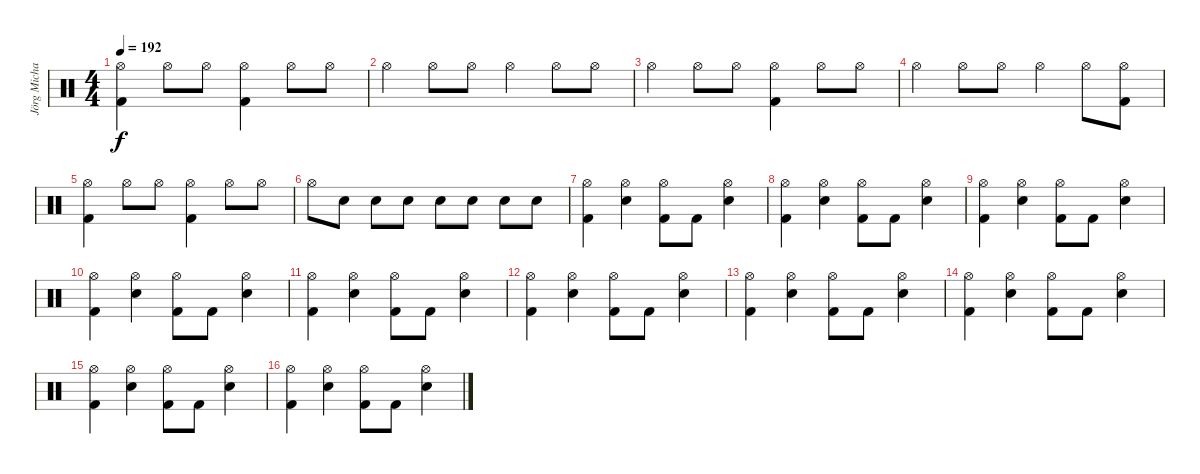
\track ("Jörg Michael" "Jörg Micha") {instrument percussion}
\staff {score}
\articulation defaults
\ts (4 4)
\tempo 192
\clef neutral
\ks c
("Kick (hit) 2" "Hi-Hat (open)").4{dy f} "Hi-Hat (open)".8 "Hi-Hat (open)".8 ("Kick (hit) 2" "Hi-Hat (open)").4 "Hi-Hat (open)".8 "Hi-Hat (open)".8 |
"Hi-Hat (open)".4 "Hi-Hat (open)".8 "Hi-Hat (open)".8 "Hi-Hat (open)".4 "Hi-Hat (open)".8 "Hi-Hat (open)".8 |
"Hi-Hat (open)".4 "Hi-Hat (open)".8 "Hi-Hat (open)".8 ("Kick (hit) 2" "Hi-Hat (open)").4 "Hi-Hat (open)".8 "Hi-Hat (open)".8 |
"Hi-Hat (open)".4 "Hi-Hat (open)".8 "Hi-Hat (open)".8 "Hi-Hat (open)".4 "Hi-Hat (open)".8 ("Kick (hit) 2" "Hi-Hat (open)").8 |
("Kick (hit) 2" "Hi-Hat (open)").4 "Hi-Hat (open)".8 "Hi-Hat (open)".8 ("Kick (hit) 2" "Hi-Hat (open)").4 "Hi-Hat (open)".8 "Hi-Hat (open)".8 |
"Hi-Hat (open)".8 "Snare (hit) 2".8 "Snare (hit) 2".8 "Snare (hit) 2".8 "Snare (hit) 2".8 "Snare (hit) 2".8 "Snare (hit) 2".8 "Snare (hit) 2".8 |
("Hi-Hat (open)" "Kick (hit) 2").4 ("Hi-Hat (open)" "Electric Snare (hit)").4 ("Hi-Hat (open)" "Kick (hit) 2").8 "Kick (hit) 2".8 ("Hi-Hat (open)" "Electric Snare (hit)").4 |
("Hi-Hat (open)" "Kick (hit) 2").4 ("Hi-Hat (open)" "Electric Snare (hit)").4 ("Hi-Hat (open)" "Kick (hit) 2").8 "Kick (hit) 2".8 ("Hi-Hat (open)" "Electric Snare (hit)").4 |
("Hi-Hat (open)" "Kick (hit) 2").4 ("Hi-Hat (open)" "Electric Snare (hit)").4 ("Hi-Hat (open)" "Kick (hit) 2").8 "Kick (hit) 2".8 ("Hi-Hat (open)" "Electric Snare (hit)").4 |
("Hi-Hat (open)" "Kick (hit) 2").4 ("Hi-Hat (open)" "Electric Snare (hit)").4 ("Hi-Hat (open)" "Kick (hit) 2").8 "Kick (hit) 2".8 ("Hi-Hat (open)" "Electric Snare (hit)").4 |
("Hi-Hat (open)" "Kick (hit) 2").4 ("Hi-Hat (open)" "Electric Snare (hit)").4 ("Hi-Hat (open)" "Kick (hit) 2").8 "Kick (hit) 2".8 ("Hi-Hat (open)" "Electric Snare (hit)").4 |
("Hi-Hat (open)" "Kick (hit) 2").4 ("Hi-Hat (open)" "Electric Snare (hit)").4 ("Hi-Hat (open)" "Kick (hit) 2").8 "Kick (hit) 2".8 ("Hi-Hat (open)" "Electric Snare (hit)").4 |
("Hi-Hat (open)" "Kick (hit) 2").4 ("Hi-Hat (open)" "Electric Snare (hit)").4 ("Hi-Hat (open)" "Kick (hit) 2").8 "Kick (hit) 2".8 ("Hi-Hat (open)" "Electric Snare (hit)").4 |
("Hi-Hat (open)" "Kick (hit) 2").4 ("Hi-Hat (open)" "Electric Snare (hit)").4 ("Hi-Hat (open)" "Kick (hit) 2").8 "Kick (hit) 2".8 ("Hi-Hat (open)" "Electric Snare (hit)").4 |
("Hi-Hat (open)" "Kick (hit) 2").4 ("Hi-Hat (open)" "Electric Snare (hit)").4 ("Hi-Hat (open)" "Kick (hit) 2").8 "Kick (hit) 2".8 ("Hi-Hat (open)" "Electric Snare (hit)").4 |
("Hi-Hat (open)" "Kick (hit) 2").4 ("Hi-Hat (open)" "Electric Snare (hit)").4 ("Hi-Hat (open)" "Kick (hit) 2").8 "Kick (hit) 2".8 ("Hi-Hat (open)" "Electric Snare (hit)").4
